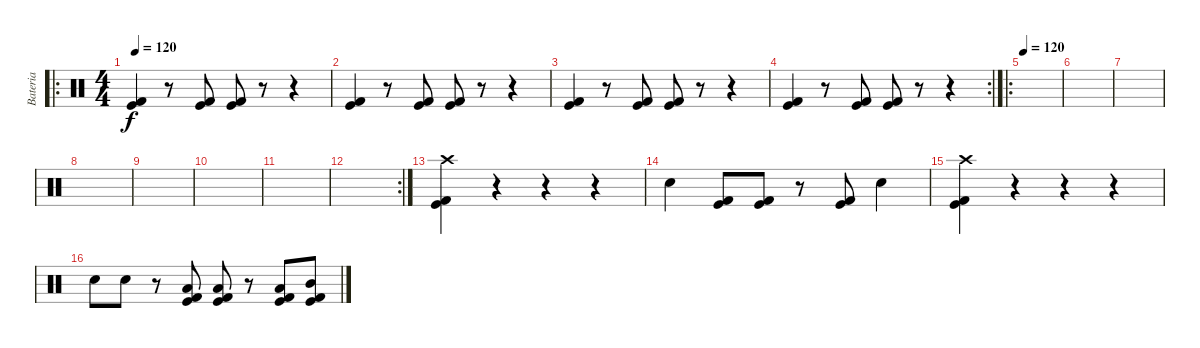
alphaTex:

\track ("Bateria" "Bateria") {instrument percussion}
\staff {score}
\articulation defaults
\ro
\ts (4 4)
\tempo 120
\tempo 85
\tempo 120
\clef neutral
\ks c
("Kick (hit)" "Kick (hit) 2").4{dy f} r.8 ("Kick (hit)" "Kick (hit) 2").8 ("Kick (hit)" "Kick (hit) 2").8 r.8 r.4 |
("Kick (hit)" "Kick (hit) 2").4 r.8 ("Kick (hit)" "Kick (hit) 2").8 ("Kick (hit)" "Kick (hit) 2").8 r.8 r.4 |
("Kick (hit)" "Kick (hit) 2").4 r.8 ("Kick (hit)" "Kick (hit) 2").8 ("Kick (hit)" "Kick (hit) 2").8 r.8 r.4 |
\rc 2
("Kick (hit)" "Kick (hit) 2").4 r.8 ("Kick (hit)" "Kick (hit) 2").8 ("Kick (hit)" "Kick (hit) 2").8 r.8 r.4 |
\ro
\tempo 120
|
|
|
|
|
|
|
\rc 2
|
("Kick (hit) 2" "Kick (hit)" "Crash high (hit)").4 r.4 r.4 r.4 |
"Electric Snare (hit)".4 ("Kick (hit) 2" "Kick (hit)").8 ("Kick (hit) 2" "Kick (hit)").8 r.8 ("Kick (hit) 2" "Kick (hit)").8 "Electric Snare (hit)".4 |
("Kick (hit) 2" "Kick (hit)" "Crash high (hit)").4 r.4 r.4 r.4 |
"Electric Snare (hit)".8 "Electric Snare (hit)".8 r.8 ("Kick (hit) 2" "Kick (hit)" "Low Floor Tom (hit)").8 ("Kick (hit) 2" "Kick (hit)" "Low Floor Tom (hit)").8 r.8 ("Kick (hit) 2" "Kick (hit)" "Low Tom (hit)").8 ("Kick (hit) 2" "Kick (hit)" "Mid Tom (hit)").8
